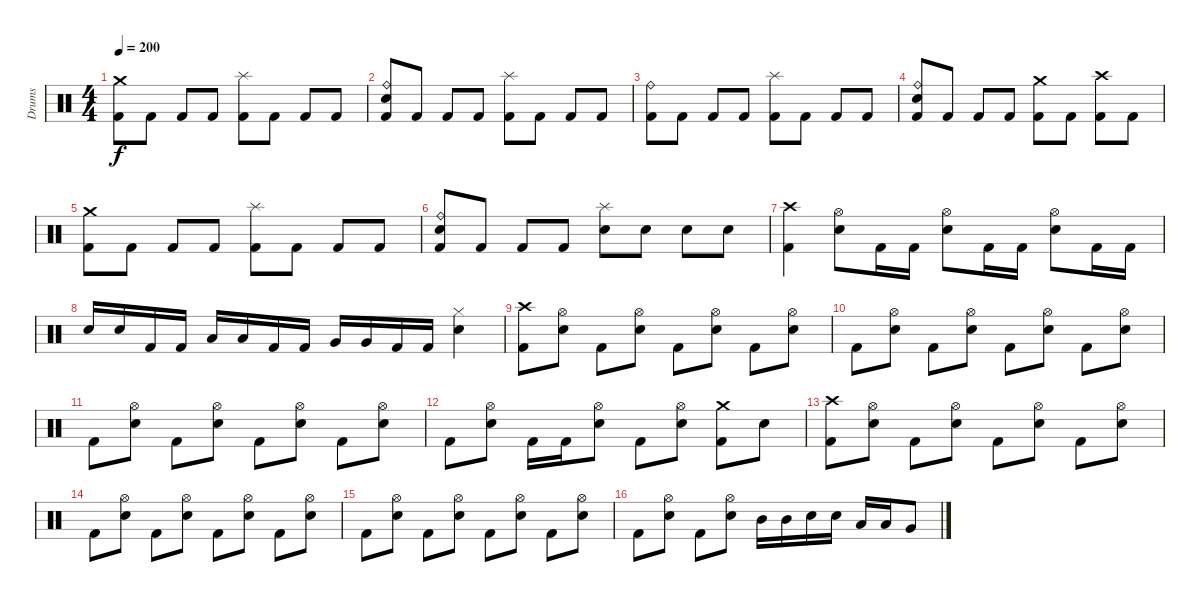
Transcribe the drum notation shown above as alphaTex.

\track ("Drums" "Drums") {instrument percussion}
\staff {score}
\articulation defaults
\ts (4 4)
\tempo 200
\clef neutral
\ks c
("Crash medium (hit)" "Kick (hit) 2").8{dy f} "Kick (hit) 2".8 "Kick (hit) 2".8 "Kick (hit) 2".8 ("Splash (hit)" "Kick (hit) 2").8 "Kick (hit) 2".8 "Kick (hit) 2".8 "Kick (hit) 2".8 |
("Ride (bell)" "Snare (hit) 2" "Kick (hit) 2").8 "Kick (hit) 2".8 "Kick (hit) 2".8 "Kick (hit) 2".8 ("Splash (hit)" "Kick (hit) 2").8 "Kick (hit) 2".8 "Kick (hit) 2".8 "Kick (hit) 2".8 |
("Ride (bell)" "Kick (hit) 2").8 "Kick (hit) 2".8 "Kick (hit) 2".8 "Kick (hit) 2".8 ("Splash (hit)" "Kick (hit) 2").8 "Kick (hit) 2".8 "Kick (hit) 2".8 "Kick (hit) 2".8 |
("Ride (bell)" "Snare (hit) 2" "Kick (hit) 2").8 "Kick (hit) 2".8 "Kick (hit) 2".8 "Kick (hit) 2".8 ("Crash medium (hit)" "Kick (hit) 2").8 "Kick (hit) 2".8 ("Crash high (hit)" "Kick (hit) 2").8 "Kick (hit) 2".8 |
("Crash medium (hit)" "Kick (hit) 2").8 "Kick (hit) 2".8 "Kick (hit) 2".8 "Kick (hit) 2".8 ("Splash (hit)" "Kick (hit) 2").8 "Kick (hit) 2".8 "Kick (hit) 2".8 "Kick (hit) 2".8 |
("Ride (bell)" "Snare (hit) 2" "Kick (hit) 2").8 "Kick (hit) 2".8 "Kick (hit) 2".8 "Kick (hit) 2".8 ("Splash (hit)" "Snare (hit) 2").8 "Snare (hit) 2".8 "Snare (hit) 2".8 "Snare (hit) 2".8 |
("Crash high (hit)" "Kick (hit) 2").4 ("Hi-Hat (open)" "Snare (hit) 2").8 "Kick (hit) 2".16 "Kick (hit) 2".16 ("Hi-Hat (open)" "Snare (hit) 2").8 "Kick (hit) 2".16 "Kick (hit) 2".16 ("Hi-Hat (open)" "Snare (hit) 2").8 "Kick (hit) 2".16 "Kick (hit) 2".16 |
"Snare (hit) 2".16 "Snare (hit) 2".16 "Kick (hit) 2".16 "Kick (hit) 2".16 "Low Tom (hit)".16 "Low Tom (hit)".16 "Kick (hit) 2".16 "Kick (hit) 2".16 "Very Low Tom (hit)".16 "Very Low Tom (hit)".16 "Kick (hit) 2".16 "Kick (hit) 2".16 ("Hi-Hat (closed)" "Snare (hit) 2").4 |
("Crash high (hit)" "Kick (hit) 2").8 ("Hi-Hat (open)" "Snare (hit) 2").8 "Kick (hit) 2".8 ("Hi-Hat (open)" "Snare (hit) 2").8 "Kick (hit) 2".8 ("Hi-Hat (open)" "Snare (hit) 2").8 "Kick (hit) 2".8 ("Hi-Hat (open)" "Snare (hit) 2").8 |
"Kick (hit) 2".8 ("Hi-Hat (open)" "Snare (hit) 2").8 "Kick (hit) 2".8 ("Hi-Hat (open)" "Snare (hit) 2").8 "Kick (hit) 2".8 ("Hi-Hat (open)" "Snare (hit) 2").8 "Kick (hit) 2".8 ("Hi-Hat (open)" "Snare (hit) 2").8 |
"Kick (hit) 2".8 ("Hi-Hat (open)" "Snare (hit) 2").8 "Kick (hit) 2".8 ("Hi-Hat (open)" "Snare (hit) 2").8 "Kick (hit) 2".8 ("Hi-Hat (open)" "Snare (hit) 2").8 "Kick (hit) 2".8 ("Hi-Hat (open)" "Snare (hit) 2").8 |
"Kick (hit) 2".8 ("Hi-Hat (open)" "Snare (hit) 2").8 "Kick (hit) 2".16 "Kick (hit) 2".16 ("Hi-Hat (open)" "Snare (hit) 2").8 "Kick (hit) 2".8 ("Hi-Hat (open)" "Snare (hit) 2").8 ("Crash medium (hit)" "Kick (hit) 2").8 "Snare (hit) 2".8 |
("Crash high (hit)" "Kick (hit) 2").8 ("Hi-Hat (open)" "Snare (hit) 2").8 "Kick (hit) 2".8 ("Hi-Hat (open)" "Snare (hit) 2").8 "Kick (hit) 2".8 ("Hi-Hat (open)" "Snare (hit) 2").8 "Kick (hit) 2".8 ("Hi-Hat (open)" "Snare (hit) 2").8 |
"Kick (hit) 2".8 ("Hi-Hat (open)" "Snare (hit) 2").8 "Kick (hit) 2".8 ("Hi-Hat (open)" "Snare (hit) 2").8 "Kick (hit) 2".8 ("Hi-Hat (open)" "Snare (hit) 2").8 "Kick (hit) 2".8 ("Hi-Hat (open)" "Snare (hit) 2").8 |
"Kick (hit) 2".8 ("Hi-Hat (open)" "Snare (hit) 2").8 "Kick (hit) 2".8 ("Hi-Hat (open)" "Snare (hit) 2").8 "Kick (hit) 2".8 ("Hi-Hat (open)" "Snare (hit) 2").8 "Kick (hit) 2".8 ("Hi-Hat (open)" "Snare (hit) 2").8 |
"Kick (hit) 2".8 ("Hi-Hat (open)" "Snare (hit) 2").8 "Kick (hit) 2".8 ("Hi-Hat (open)" "Snare (hit) 2").8 "Mid Tom (hit)".16 "Mid Tom (hit)".16 "Snare (hit) 2".16 "Snare (hit) 2".16 "Low Tom (hit)".16 "Low Tom (hit)".16 "Very Low Tom (hit)".8
